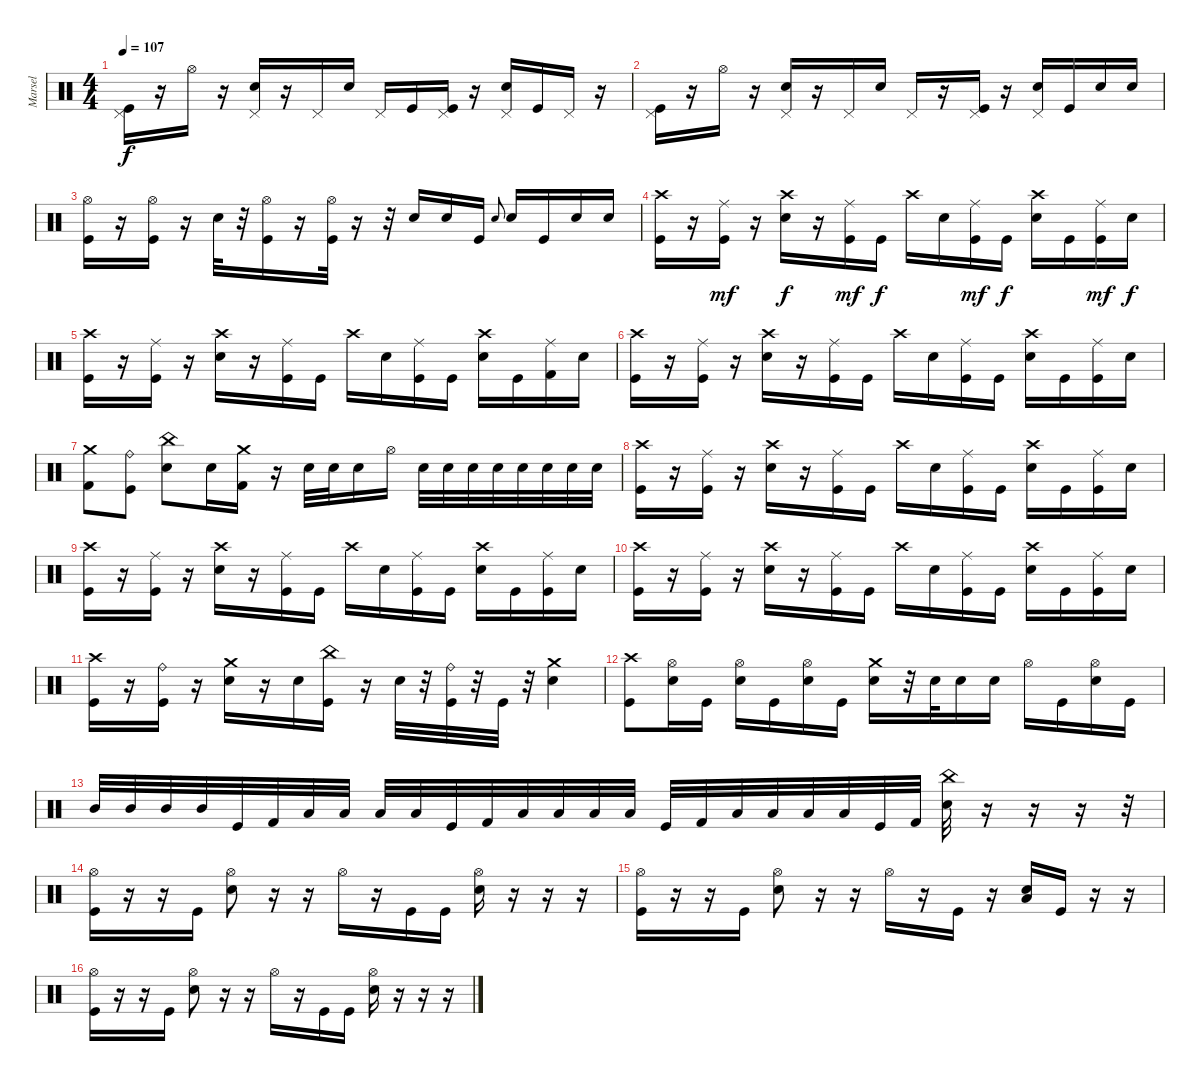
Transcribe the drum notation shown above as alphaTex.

\track ("Marsel" "Marsel") {instrument percussion}
\staff {score}
\articulation defaults
\ts (4 4)
\tempo 107
\clef neutral
\ks c
("Pedal Hi-Hat (hit)" "Kick (hit)").16{dy f} r.16 "Hi-Hat (open)".16 r.16 ("Pedal Hi-Hat (hit)" "Snare (hit) 2").16 r.16 "Pedal Hi-Hat (hit)".16 "Snare (hit) 2".16 "Pedal Hi-Hat (hit)".16 "Kick (hit)".16 ("Pedal Hi-Hat (hit)" "Kick (hit)").16 r.16 ("Pedal Hi-Hat (hit)" "Snare (hit) 2").16 "Kick (hit)".16 "Pedal Hi-Hat (hit)".16 r.16 |
("Pedal Hi-Hat (hit)" "Kick (hit)").16 r.16 "Hi-Hat (open)".16 r.16 ("Pedal Hi-Hat (hit)" "Snare (hit) 2").16 r.16 "Pedal Hi-Hat (hit)".16 "Snare (hit) 2".16 "Pedal Hi-Hat (hit)".16 r.16 ("Pedal Hi-Hat (hit)" "Kick (hit)").16 r.16 ("Pedal Hi-Hat (hit)" "Snare (hit) 2").16 "Kick (hit)".16 "Snare (hit) 2".16 "Snare (hit) 2".16 |
("Hi-Hat (open)" "Kick (hit)").16 r.16 ("Hi-Hat (open)" "Kick (hit)").16 r.16 "Snare (hit) 2".32 r.32 ("Hi-Hat (open)" "Kick (hit)").16 r.16 ("Hi-Hat (open)" "Kick (hit)").32 r.16 r.32 "Snare (hit) 2".16 "Snare (hit) 2".16 "Kick (hit)".16 "Snare (hit) 2".8{gr onbeat} "Snare (hit) 2".16 "Kick (hit)".16 "Snare (hit) 2".16 "Snare (hit) 2".16 |
("Crash high (hit)" "Kick (hit)").16 r.16 ("Ride (middle)" "Kick (hit)").16{dy mf} r.16 ("Crash high (hit)" "Snare (hit) 2").16{dy f} r.16 ("Ride (middle)" "Kick (hit)").16{dy mf} "Kick (hit)".16{dy f} "Crash high (hit)".16 "Snare (hit) 2".16 ("Ride (middle)" "Kick (hit)").16{dy mf} "Kick (hit)".16{dy f} ("Crash high (hit)" "Snare (hit) 2").16 "Kick (hit)".16 ("Ride (middle)" "Kick (hit)").16{dy mf} "Snare (hit) 2".16{dy f} |
("Crash high (hit)" "Kick (hit)").16 r.16 ("Ride (middle)" "Kick (hit)").16 r.16 ("Crash high (hit)" "Snare (hit) 2").16 r.16 ("Ride (middle)" "Kick (hit)").16 "Kick (hit)".16 "Crash high (hit)".16 "Snare (hit) 2".16 ("Ride (middle)" "Kick (hit)").16 "Kick (hit)".16 ("Crash high (hit)" "Snare (hit) 2").16 "Kick (hit)".16 ("Ride (middle)" "Kick (hit) 2").16 "Snare (hit) 2".16 |
("Crash high (hit)" "Kick (hit)").16 r.16 ("Ride (middle)" "Kick (hit)").16 r.16 ("Crash high (hit)" "Snare (hit) 2").16 r.16 ("Ride (middle)" "Kick (hit)").16 "Kick (hit)".16 "Crash high (hit)".16 "Snare (hit) 2".16 ("Ride (middle)" "Kick (hit)").16 "Kick (hit)".16 ("Crash high (hit)" "Snare (hit) 2").16 "Kick (hit)".16 ("Ride (middle)" "Kick (hit)").16 "Snare (hit) 2".16 |
("Crash medium (hit)" "Kick (hit) 2").8 ("Ride (bell)" "Kick (hit)").8 ("China (hit)" "Snare (hit) 2").8 "Snare (hit) 2".16 ("Crash medium (hit)" "Kick (hit) 2").16 r.16 "Snare (hit) 2".32 "Snare (hit) 2".32 "Snare (hit) 2".16 "Hi-Hat (open)".16 "Snare (hit) 2".32 "Snare (hit) 2".32 "Snare (hit) 2".32 "Snare (hit) 2".32 "Snare (hit) 2".32 "Snare (hit) 2".32 "Snare (hit) 2".32 "Snare (hit) 2".32 |
("Crash high (hit)" "Kick (hit)").16 r.16 ("Ride (middle)" "Kick (hit)").16 r.16 ("Crash high (hit)" "Snare (hit) 2").16 r.16 ("Ride (middle)" "Kick (hit)").16 "Kick (hit)".16 "Crash high (hit)".16 "Snare (hit) 2".16 ("Ride (middle)" "Kick (hit)").16 "Kick (hit)".16 ("Crash high (hit)" "Snare (hit) 2").16 "Kick (hit)".16 ("Ride (middle)" "Kick (hit)").16 "Snare (hit) 2".16 |
("Crash high (hit)" "Kick (hit)").16 r.16 ("Ride (middle)" "Kick (hit)").16 r.16 ("Crash high (hit)" "Snare (hit) 2").16 r.16 ("Ride (middle)" "Kick (hit)").16 "Kick (hit)".16 "Crash high (hit)".16 "Snare (hit) 2".16 ("Ride (middle)" "Kick (hit)").16 "Kick (hit)".16 ("Crash high (hit)" "Snare (hit) 2").16 "Kick (hit)".16 ("Ride (middle)" "Kick (hit)").16 "Snare (hit) 2".16 |
("Crash high (hit)" "Kick (hit)").16 r.16 ("Ride (middle)" "Kick (hit)").16 r.16 ("Crash high (hit)" "Snare (hit) 2").16 r.16 ("Ride (middle)" "Kick (hit)").16 "Kick (hit)".16 "Crash high (hit)".16 "Snare (hit) 2".16 ("Ride (middle)" "Kick (hit)").16 "Kick (hit)".16 ("Crash high (hit)" "Snare (hit) 2").16 "Kick (hit)".16 ("Ride (middle)" "Kick (hit)").16 "Snare (hit) 2".16 |
("Crash high (hit)" "Kick (hit)").16 r.16 ("Ride (bell)" "Kick (hit)").16 r.16 ("Crash medium (hit)" "Snare (hit) 2").16 r.16 "Snare (hit) 2".16 ("China (hit)" "Kick (hit)").16 r.16 "Snare (hit) 2".32 r.32 ("Ride (bell)" "Kick (hit)").32 r.32 "Kick (hit)".32 r.32 ("Crash medium (hit)" "Snare (hit) 2").4 |
("Crash high (hit)" "Kick (hit)").8 ("Hi-Hat (open)" "Snare (hit) 2").16 "Kick (hit)".16 ("Hi-Hat (open)" "Snare (hit) 2").16 "Kick (hit)".16 ("Hi-Hat (open)" "Snare (hit) 2").16 "Kick (hit)".16 ("Crash medium (hit)" "Snare (hit) 2").16 r.32 "Snare (hit) 2".32 "Snare (hit) 2".16 "Snare (hit) 2".16 "Hi-Hat (open)".16 "Kick (hit)".16 ("Hi-Hat (open)" "Snare (hit) 2").16 "Kick (hit)".16 |
"Mid Tom (hit)".32 "Mid Tom (hit)".32 "Mid Tom (hit)".32 "Mid Tom (hit)".32 "Kick (hit)".32 "Kick (hit) 2".32 "Low Tom (hit)".32 "Low Tom (hit)".32 "Low Tom (hit)".32 "Low Tom (hit)".32 "Kick (hit)".32 "Kick (hit) 2".32 "Low Floor Tom (hit)".32 "Low Floor Tom (hit)".32 "Low Tom (hit)".32 "Low Tom (hit)".32 "Kick (hit)".32 "Kick (hit) 2".32 "Low Tom (hit)".32 "Low Tom (hit)".32 "Low Tom (hit)".32 "Low Tom (hit)".32 "Kick (hit)".32 "Kick (hit) 2".32 ("China (hit)" "Snare (hit) 2").32 r.16 r.16 r.16 r.32 |
("Hi-Hat (open)" "Kick (hit)").16 r.16 r.16 "Kick (hit)".16 ("Hi-Hat (open)" "Snare (hit) 2").8 r.16 r.16 "Hi-Hat (open)".16 r.16 "Kick (hit)".16 "Kick (hit)".16 ("Hi-Hat (open)" "Snare (hit) 2").16 r.16 r.16 r.16 |
("Hi-Hat (open)" "Kick (hit)").16 r.16 r.16 "Kick (hit)".16 ("Hi-Hat (open)" "Snare (hit) 2").8 r.16 r.16 "Hi-Hat (open)".16 r.16 "Kick (hit)".16 r.16 ("Snare (hit) 2" "Low Tom (hit)").16 "Kick (hit)".16 r.16 r.16 |
("Hi-Hat (open)" "Kick (hit)").16 r.16 r.16 "Kick (hit)".16 ("Hi-Hat (open)" "Snare (hit) 2").8 r.16 r.16 "Hi-Hat (open)".16 r.16 "Kick (hit)".16 "Kick (hit)".16 ("Hi-Hat (open)" "Snare (hit) 2").16 r.16 r.16 r.16
